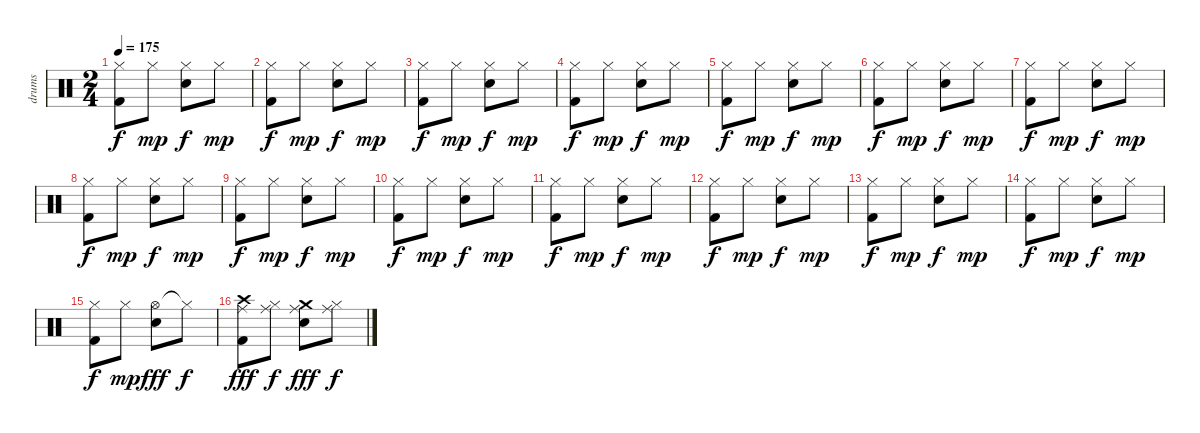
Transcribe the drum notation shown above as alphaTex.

\track ("drums" "drums") {instrument percussion}
\staff {score}
\articulation defaults
\ts (2 4)
\tempo 175
\clef neutral
\ks c
("Hi-Hat (closed)" "Kick (hit) 2").8{dy f} "Hi-Hat (closed)".8{dy mp} ("Hi-Hat (closed)" "Snare (hit) 2").8{dy f} "Hi-Hat (closed)".8{dy mp} |
("Hi-Hat (closed)" "Kick (hit) 2").8{dy f} "Hi-Hat (closed)".8{dy mp} ("Hi-Hat (closed)" "Snare (hit) 2").8{dy f} "Hi-Hat (closed)".8{dy mp} |
("Hi-Hat (closed)" "Kick (hit) 2").8{dy f} "Hi-Hat (closed)".8{dy mp} ("Hi-Hat (closed)" "Snare (hit) 2").8{dy f} "Hi-Hat (closed)".8{dy mp} |
("Hi-Hat (closed)" "Kick (hit) 2").8{dy f} "Hi-Hat (closed)".8{dy mp} ("Hi-Hat (closed)" "Snare (hit) 2").8{dy f} "Hi-Hat (closed)".8{dy mp} |
("Hi-Hat (closed)" "Kick (hit) 2").8{dy f} "Hi-Hat (closed)".8{dy mp} ("Hi-Hat (closed)" "Snare (hit) 2").8{dy f} "Hi-Hat (closed)".8{dy mp} |
("Hi-Hat (closed)" "Kick (hit) 2").8{dy f} "Hi-Hat (closed)".8{dy mp} ("Hi-Hat (closed)" "Snare (hit) 2").8{dy f} "Hi-Hat (closed)".8{dy mp} |
("Hi-Hat (closed)" "Kick (hit) 2").8{dy f} "Hi-Hat (closed)".8{dy mp} ("Hi-Hat (closed)" "Snare (hit) 2").8{dy f} "Hi-Hat (closed)".8{dy mp} |
("Hi-Hat (closed)" "Kick (hit) 2").8{dy f} "Hi-Hat (closed)".8{dy mp} ("Hi-Hat (closed)" "Snare (hit) 2").8{dy f} "Hi-Hat (closed)".8{dy mp} |
("Hi-Hat (closed)" "Kick (hit) 2").8{dy f} "Hi-Hat (closed)".8{dy mp} ("Hi-Hat (closed)" "Snare (hit) 2").8{dy f} "Hi-Hat (closed)".8{dy mp} |
("Hi-Hat (closed)" "Kick (hit) 2").8{dy f} "Hi-Hat (closed)".8{dy mp} ("Hi-Hat (closed)" "Snare (hit) 2").8{dy f} "Hi-Hat (closed)".8{dy mp} |
("Hi-Hat (closed)" "Kick (hit) 2").8{dy f} "Hi-Hat (closed)".8{dy mp} ("Hi-Hat (closed)" "Snare (hit) 2").8{dy f} "Hi-Hat (closed)".8{dy mp} |
("Hi-Hat (closed)" "Kick (hit) 2").8{dy f} "Hi-Hat (closed)".8{dy mp} ("Hi-Hat (closed)" "Snare (hit) 2").8{dy f} "Hi-Hat (closed)".8{dy mp} |
("Hi-Hat (closed)" "Kick (hit) 2").8{dy f} "Hi-Hat (closed)".8{dy mp} ("Hi-Hat (closed)" "Snare (hit) 2").8{dy f} "Hi-Hat (closed)".8{dy mp} |
("Hi-Hat (closed)" "Kick (hit) 2").8{dy f} "Hi-Hat (closed)".8{dy mp} ("Hi-Hat (closed)" "Snare (hit) 2").8{dy f} "Hi-Hat (closed)".8{dy mp} |
("Hi-Hat (closed)" "Kick (hit) 2").8{dy f} "Hi-Hat (closed)".8{dy mp} ("Hi-Hat (open)" "Snare (hit) 2").8{dy fff} "Hi-Hat (closed)"{t}.8{dy f} |
("Crash high (hit)" "Ride (middle)" "Kick (hit) 2").8{dy fff} ("Ride (middle)" "Hi-Hat (closed)").8{dy f} ("Crash medium (hit)" "Ride (middle)" "Snare (hit) 2").8{dy fff} ("Ride (middle)" "Hi-Hat (closed)").8{dy f}
